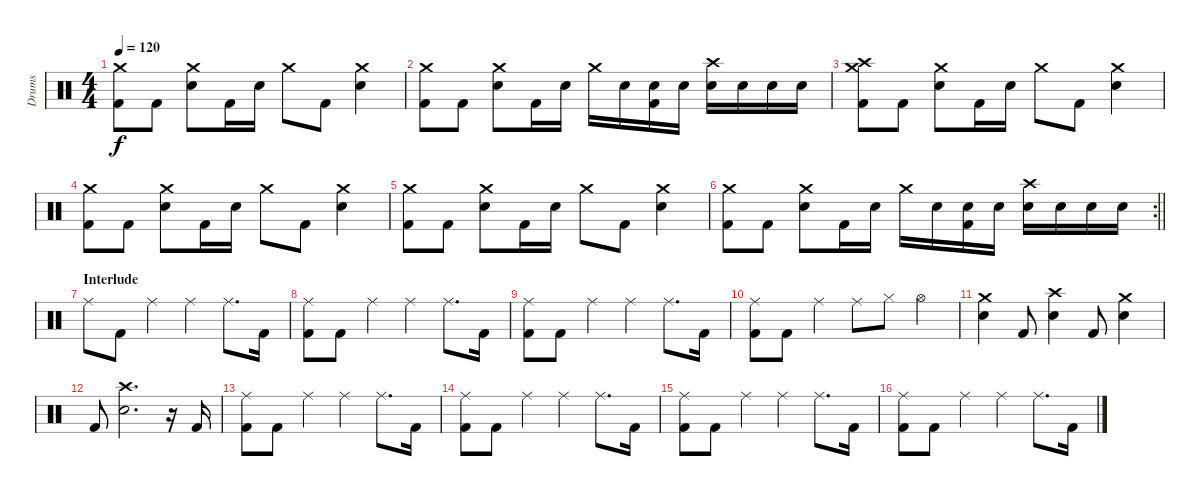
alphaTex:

\track ("Drums" "Drums") {instrument percussion}
\staff {score}
\articulation defaults
\ts (4 4)
\tempo 120
\clef neutral
\ks c
("Crash medium (hit)" "Kick (hit) 2").8{dy f} "Kick (hit) 2".8 ("Crash medium (hit)" "Electric Snare (hit)").8 "Kick (hit) 2".16 "Electric Snare (hit)".16 "Crash medium (hit)".8 "Kick (hit) 2".8 ("Crash medium (hit)" "Electric Snare (hit)").4 |
("Crash medium (hit)" "Kick (hit) 2").8 "Kick (hit) 2".8 ("Crash medium (hit)" "Electric Snare (hit)").8 "Kick (hit) 2".16 "Electric Snare (hit)".16 "Crash medium (hit)".16 "Electric Snare (hit)".16 ("Electric Snare (hit)" "Kick (hit) 2").16 "Electric Snare (hit)".16 ("Crash high (hit)" "Electric Snare (hit)").16 "Electric Snare (hit)".16 "Electric Snare (hit)".16 "Electric Snare (hit)".16 |
("Crash medium (hit)" "Crash high (hit)" "Kick (hit) 2").8 "Kick (hit) 2".8 ("Crash medium (hit)" "Electric Snare (hit)").8 "Kick (hit) 2".16 "Electric Snare (hit)".16 "Crash medium (hit)".8 "Kick (hit) 2".8 ("Crash medium (hit)" "Electric Snare (hit)").4 |
("Crash medium (hit)" "Kick (hit) 2").8 "Kick (hit) 2".8 ("Crash medium (hit)" "Electric Snare (hit)").8 "Kick (hit) 2".16 "Electric Snare (hit)".16 "Crash medium (hit)".8 "Kick (hit) 2".8 ("Crash medium (hit)" "Electric Snare (hit)").4 |
("Crash medium (hit)" "Kick (hit) 2").8 "Kick (hit) 2".8 ("Crash medium (hit)" "Electric Snare (hit)").8 "Kick (hit) 2".16 "Electric Snare (hit)".16 "Crash medium (hit)".8 "Kick (hit) 2".8 ("Crash medium (hit)" "Electric Snare (hit)").4 |
\rc 2
\barLineRight lightlight
("Crash medium (hit)" "Kick (hit) 2").8 "Kick (hit) 2".8 ("Crash medium (hit)" "Electric Snare (hit)").8 "Kick (hit) 2".16 "Electric Snare (hit)".16 "Crash medium (hit)".16 "Electric Snare (hit)".16 ("Electric Snare (hit)" "Kick (hit) 2").16 "Electric Snare (hit)".16 ("Crash high (hit)" "Electric Snare (hit)").16 "Electric Snare (hit)".16 "Electric Snare (hit)".16 "Electric Snare (hit)".16 |
\section ("" "Interlude")
"Ride (middle)".8 "Kick (hit) 2".8 "Ride (middle)".4 "Ride (middle)".4 "Ride (middle)".8{d} "Kick (hit) 2".16 |
("Ride (middle)" "Kick (hit) 2").8 "Kick (hit) 2".8 "Ride (middle)".4 "Ride (middle)".4 "Ride (middle)".8{d} "Kick (hit) 2".16 |
("Ride (middle)" "Kick (hit) 2").8 "Kick (hit) 2".8 "Ride (middle)".4 "Ride (middle)".4 "Ride (middle)".8{d} "Kick (hit) 2".16 |
("Ride (middle)" "Kick (hit) 2").8 "Kick (hit) 2".8 "Ride (middle)".4 "Ride (middle)".8 "Hi-Hat (closed)".8 "Hi-Hat (open)".4 |
("Crash medium (hit)" "Electric Snare (hit)").4 "Kick (hit) 2".8 ("Crash high (hit)" "Electric Snare (hit)").4 "Kick (hit) 2".8 ("Crash medium (hit)" "Electric Snare (hit)").4 |
"Kick (hit) 2".8 ("Crash high (hit)" "Electric Snare (hit)").2{d} r.16 "Kick (hit) 2".16 |
("Ride (middle)" "Kick (hit) 2").8 "Kick (hit) 2".8 "Ride (middle)".4 "Ride (middle)".4 "Ride (middle)".8{d} "Kick (hit) 2".16 |
("Ride (middle)" "Kick (hit) 2").8 "Kick (hit) 2".8 "Ride (middle)".4 "Ride (middle)".4 "Ride (middle)".8{d} "Kick (hit) 2".16 |
("Ride (middle)" "Kick (hit) 2").8 "Kick (hit) 2".8 "Ride (middle)".4 "Ride (middle)".4 "Ride (middle)".8{d} "Kick (hit) 2".16 |
("Ride (middle)" "Kick (hit) 2").8 "Kick (hit) 2".8 "Ride (middle)".4 "Ride (middle)".4 "Ride (middle)".8{d} "Kick (hit) 2".16
